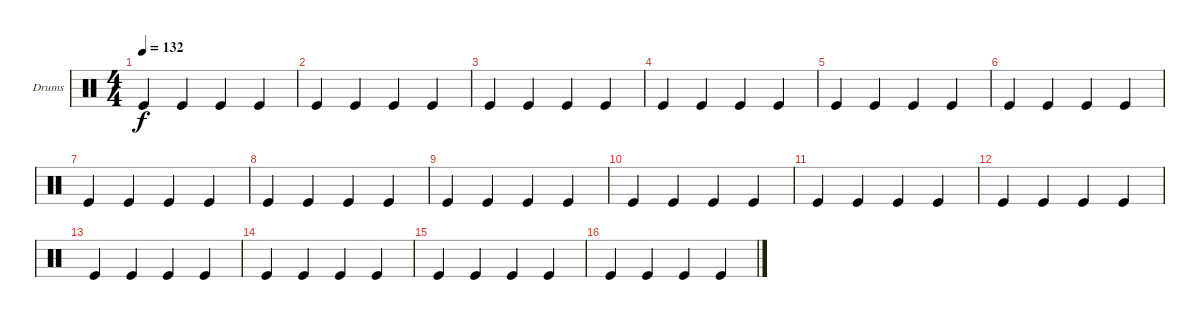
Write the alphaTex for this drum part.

\defaultSystemsLayout 4
\bracketExtendMode groupsimilarinstruments
\firstSystemTrackNameOrientation horizontal
\otherSystemsTrackNameOrientation horizontal
\track ("Drumkit" "Drums") {instrument percussion}
\staff {score}
\articulation defaults
\ts (4 4)
\tempo 132
\clef neutral
\scale
0.333333
\ks c "Kick (hit)".4{dy f} "Kick (hit)".4 "Kick (hit)".4 "Kick (hit)".4
|
\scale
0.333333 "Kick (hit)".4 "Kick (hit)".4 "Kick (hit)".4 "Kick (hit)".4 |
\scale
0.333333 "Kick (hit)".4 "Kick (hit)".4 "Kick (hit)".4 "Kick (hit)".4 |
\scale
0.333333 "Kick (hit)".4 "Kick (hit)".4 "Kick (hit)".4 "Kick (hit)".4 |
\scale
0.333333 "Kick (hit)".4 "Kick (hit)".4 "Kick (hit)".4 "Kick (hit)".4 |
\scale
0.333333 "Kick (hit)".4 "Kick (hit)".4 "Kick (hit)".4 "Kick (hit)".4 |
\scale
0.333333 "Kick (hit)".4 "Kick (hit)".4 "Kick (hit)".4 "Kick (hit)".4 |
\scale
0.333333 "Kick (hit)".4 "Kick (hit)".4 "Kick (hit)".4 "Kick (hit)".4 |
\scale
0.333333 "Kick (hit)".4 "Kick (hit)".4 "Kick (hit)".4 "Kick (hit)".4 |
\scale
0.333333 "Kick (hit)".4 "Kick (hit)".4 "Kick (hit)".4 "Kick (hit)".4 |
\scale
0.333333 "Kick (hit)".4 "Kick (hit)".4 "Kick (hit)".4 "Kick (hit)".4 |
\scale
0.333333 "Kick (hit)".4 "Kick (hit)".4 "Kick (hit)".4 "Kick (hit)".4 |
\scale
0.333333 "Kick (hit)".4 "Kick (hit)".4 "Kick (hit)".4 "Kick (hit)".4 |
\scale
0.333333 "Kick (hit)".4 "Kick (hit)".4 "Kick (hit)".4 "Kick (hit)".4 |
\scale
0.333333 "Kick (hit)".4 "Kick (hit)".4 "Kick (hit)".4 "Kick (hit)".4 |
\scale
0.333333 "Kick (hit)".4 "Kick (hit)".4 "Kick (hit)".4 "Kick (hit)".4
